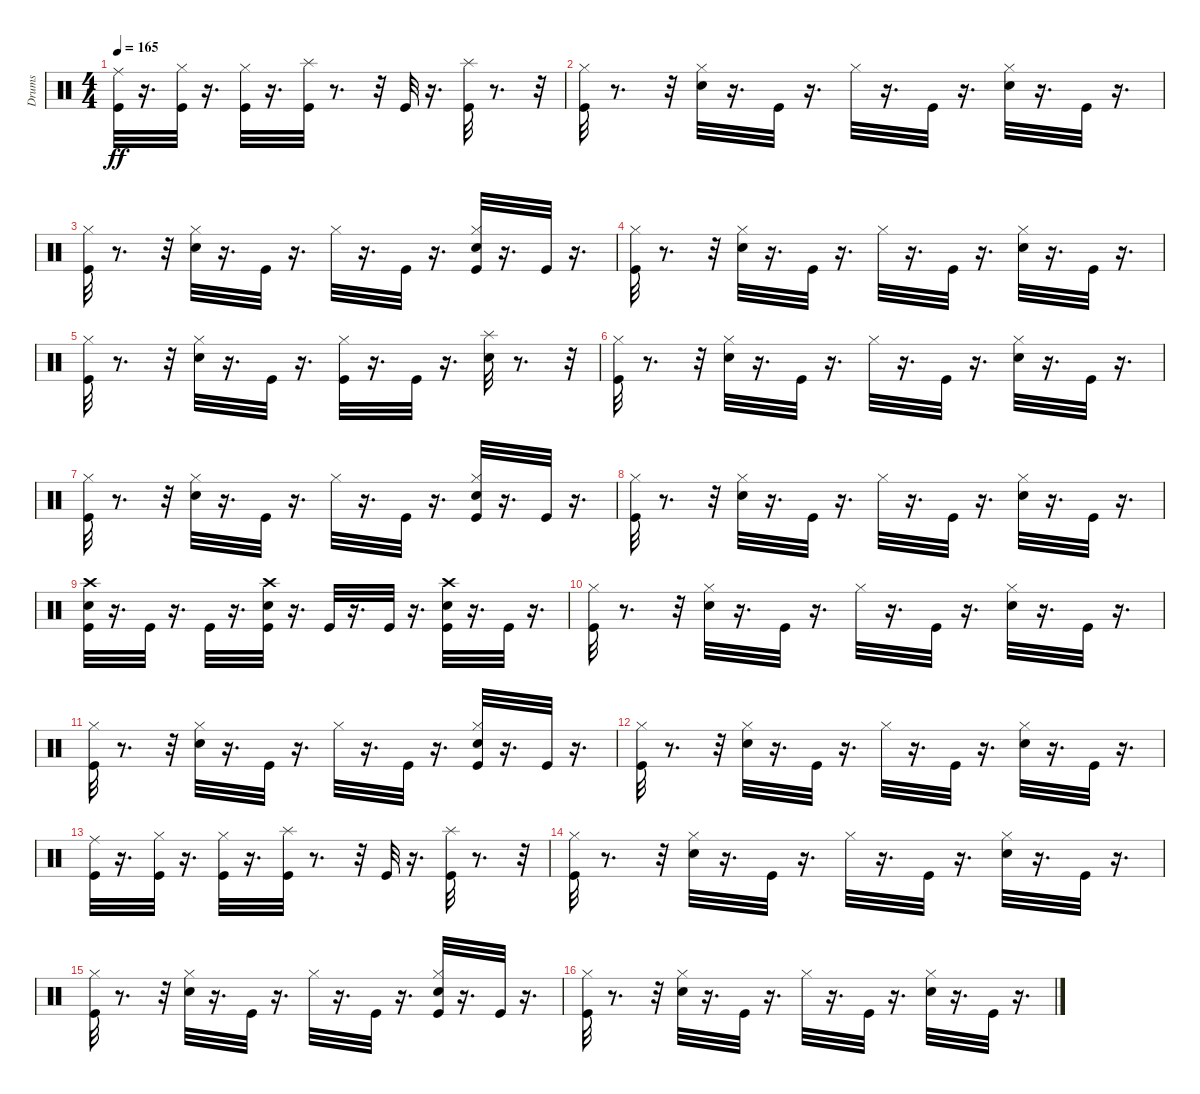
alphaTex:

\track ("Drums" "Drums") {instrument percussion}
\staff {score}
\articulation defaults
\ts (4 4)
\tempo 165
\clef neutral
\ks c
("Ride (middle)" "Kick (hit)").32{dy ff} r.16{d} ("Hi-Hat (closed)" "Kick (hit)").32 r.16{d} ("Kick (hit)" "Hi-Hat (closed)").32 r.16{d} ("Splash (hit)" "Kick (hit)").32 r.8{d} r.32 "Kick (hit)".32 r.16{d} ("Kick (hit)" "Splash (hit)").32 r.8{d} r.32 |
("Hi-Hat (closed)" "Kick (hit)").32 r.8{d} r.32 ("Hi-Hat (closed)" "Electric Snare (hit)").32 r.16{d} "Kick (hit)".32 r.16{d} "Hi-Hat (closed)".32 r.16{d} "Kick (hit)".32 r.16{d} ("Hi-Hat (closed)" "Electric Snare (hit)").32 r.16{d} "Kick (hit)".32 r.16{d} |
("Hi-Hat (closed)" "Kick (hit)").32 r.8{d} r.32 ("Electric Snare (hit)" "Hi-Hat (closed)").32 r.16{d} "Kick (hit)".32 r.16{d} "Hi-Hat (closed)".32 r.16{d} "Kick (hit)".32 r.16{d} ("Electric Snare (hit)" "Hi-Hat (closed)" "Kick (hit)").32 r.16{d} "Kick (hit)".32 r.16{d} |
("Kick (hit)" "Hi-Hat (closed)").32 r.8{d} r.32 ("Hi-Hat (closed)" "Electric Snare (hit)").32 r.16{d} "Kick (hit)".32 r.16{d} "Hi-Hat (closed)".32 r.16{d} "Kick (hit)".32 r.16{d} ("Electric Snare (hit)" "Hi-Hat (closed)").32 r.16{d} "Kick (hit)".32 r.16{d} |
("Kick (hit)" "Hi-Hat (closed)").32 r.8{d} r.32 ("Hi-Hat (closed)" "Electric Snare (hit)").32 r.16{d} "Kick (hit)".32 r.16{d} ("Kick (hit)" "Hi-Hat (closed)").32 r.16{d} "Kick (hit)".32 r.16{d} ("Splash (hit)" "Electric Snare (hit)").32 r.8{d} r.32 |
("Kick (hit)" "Hi-Hat (closed)").32 r.8{d} r.32 ("Hi-Hat (closed)" "Electric Snare (hit)").32 r.16{d} "Kick (hit)".32 r.16{d} "Hi-Hat (closed)".32 r.16{d} "Kick (hit)".32 r.16{d} ("Electric Snare (hit)" "Hi-Hat (closed)").32 r.16{d} "Kick (hit)".32 r.16{d} |
("Hi-Hat (closed)" "Kick (hit)").32 r.8{d} r.32 ("Hi-Hat (closed)" "Electric Snare (hit)").32 r.16{d} "Kick (hit)".32 r.16{d} "Hi-Hat (closed)".32 r.16{d} "Kick (hit)".32 r.16{d} ("Kick (hit)" "Hi-Hat (closed)" "Electric Snare (hit)").32 r.16{d} "Kick (hit)".32 r.16{d} |
("Kick (hit)" "Hi-Hat (closed)").32 r.8{d} r.32 ("Hi-Hat (closed)" "Electric Snare (hit)").32 r.16{d} "Kick (hit)".32 r.16{d} "Hi-Hat (closed)".32 r.16{d} "Kick (hit)".32 r.16{d} ("Electric Snare (hit)" "Hi-Hat (closed)").32 r.16{d} "Kick (hit)".32 r.16{d} |
("Kick (hit)" "Crash high (hit)" "Electric Snare (hit)").32 r.16{d} "Kick (hit)".32 r.16{d} "Kick (hit)".32 r.16{d} ("Crash high (hit)" "Electric Snare (hit)" "Kick (hit)").32 r.16{d} "Kick (hit)".32 r.16{d} "Kick (hit)".32 r.16{d} ("Electric Snare (hit)" "Kick (hit)" "Crash high (hit)").32 r.16{d} "Kick (hit)".32 r.16{d} |
("Hi-Hat (closed)" "Kick (hit)").32 r.8{d} r.32 ("Electric Snare (hit)" "Hi-Hat (closed)").32 r.16{d} "Kick (hit)".32 r.16{d} "Hi-Hat (closed)".32 r.16{d} "Kick (hit)".32 r.16{d} ("Hi-Hat (closed)" "Electric Snare (hit)").32 r.16{d} "Kick (hit)".32 r.16{d} |
("Hi-Hat (closed)" "Kick (hit)").32 r.8{d} r.32 ("Electric Snare (hit)" "Hi-Hat (closed)").32 r.16{d} "Kick (hit)".32 r.16{d} "Hi-Hat (closed)".32 r.16{d} "Kick (hit)".32 r.16{d} ("Hi-Hat (closed)" "Kick (hit)" "Electric Snare (hit)").32 r.16{d} "Kick (hit)".32 r.16{d} |
("Hi-Hat (closed)" "Kick (hit)").32 r.8{d} r.32 ("Hi-Hat (closed)" "Electric Snare (hit)").32 r.16{d} "Kick (hit)".32 r.16{d} "Hi-Hat (closed)".32 r.16{d} "Kick (hit)".32 r.16{d} ("Hi-Hat (closed)" "Electric Snare (hit)").32 r.16{d} "Kick (hit)".32 r.16{d} |
("Ride (middle)" "Kick (hit)").32 r.16{d} ("Hi-Hat (closed)" "Kick (hit)").32 r.16{d} ("Kick (hit)" "Hi-Hat (closed)").32 r.16{d} ("Splash (hit)" "Kick (hit)").32 r.8{d} r.32 "Kick (hit)".32 r.16{d} ("Kick (hit)" "Splash (hit)").32 r.8{d} r.32 |
("Hi-Hat (closed)" "Kick (hit)").32 r.8{d} r.32 ("Hi-Hat (closed)" "Electric Snare (hit)").32 r.16{d} "Kick (hit)".32 r.16{d} "Hi-Hat (closed)".32 r.16{d} "Kick (hit)".32 r.16{d} ("Hi-Hat (closed)" "Electric Snare (hit)").32 r.16{d} "Kick (hit)".32 r.16{d} |
("Hi-Hat (closed)" "Kick (hit)").32 r.8{d} r.32 ("Electric Snare (hit)" "Hi-Hat (closed)").32 r.16{d} "Kick (hit)".32 r.16{d} "Hi-Hat (closed)".32 r.16{d} "Kick (hit)".32 r.16{d} ("Electric Snare (hit)" "Hi-Hat (closed)" "Kick (hit)").32 r.16{d} "Kick (hit)".32 r.16{d} |
("Kick (hit)" "Hi-Hat (closed)").32 r.8{d} r.32 ("Hi-Hat (closed)" "Electric Snare (hit)").32 r.16{d} "Kick (hit)".32 r.16{d} "Hi-Hat (closed)".32 r.16{d} "Kick (hit)".32 r.16{d} ("Electric Snare (hit)" "Hi-Hat (closed)").32 r.16{d} "Kick (hit)".32 r.16{d}
